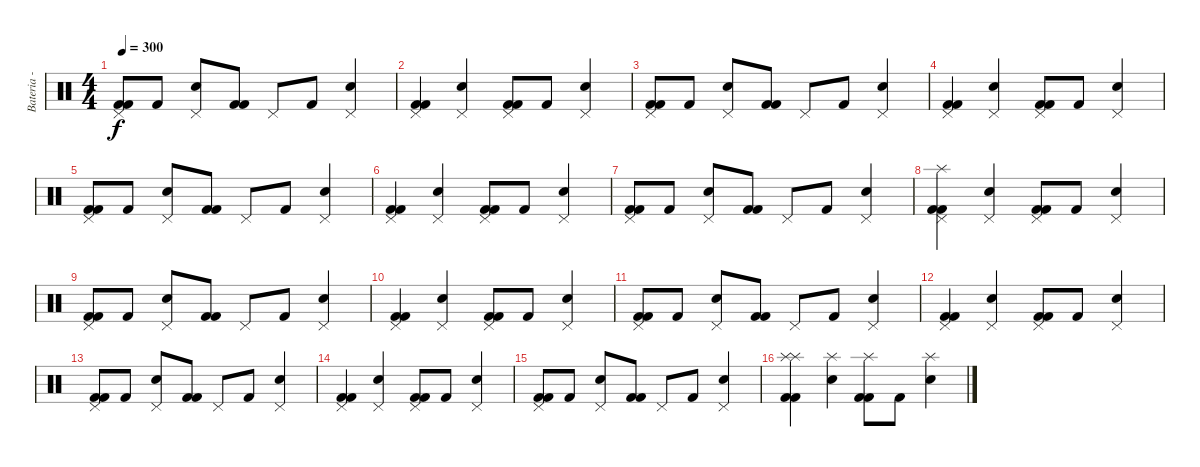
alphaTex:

\track ("Bateria - Larzon" "Bateria - ") {instrument percussion}
\staff {score}
\articulation defaults
\ts (4 4)
\tempo 300
\clef neutral
\ks c
("Pedal Hi-Hat (hit)" "Kick (hit) 2" "Kick (hit) 2").8{dy f} "Kick (hit) 2".8 ("Pedal Hi-Hat (hit)" "Snare (hit) 2").8 ("Kick (hit) 2" "Kick (hit) 2").8 "Pedal Hi-Hat (hit)".8 "Kick (hit) 2".8 ("Snare (hit) 2" "Pedal Hi-Hat (hit)").4 |
("Pedal Hi-Hat (hit)" "Kick (hit) 2" "Kick (hit) 2").4 ("Snare (hit) 2" "Pedal Hi-Hat (hit)").4 ("Kick (hit) 2" "Kick (hit) 2" "Pedal Hi-Hat (hit)").8 "Kick (hit) 2".8 ("Pedal Hi-Hat (hit)" "Snare (hit) 2").4 |
("Pedal Hi-Hat (hit)" "Kick (hit) 2" "Kick (hit) 2").8 "Kick (hit) 2".8 ("Pedal Hi-Hat (hit)" "Snare (hit) 2").8 ("Kick (hit) 2" "Kick (hit) 2").8 "Pedal Hi-Hat (hit)".8 "Kick (hit) 2".8 ("Snare (hit) 2" "Pedal Hi-Hat (hit)").4 |
("Pedal Hi-Hat (hit)" "Kick (hit) 2" "Kick (hit) 2").4 ("Snare (hit) 2" "Pedal Hi-Hat (hit)").4 ("Kick (hit) 2" "Kick (hit) 2" "Pedal Hi-Hat (hit)").8 "Kick (hit) 2".8 ("Pedal Hi-Hat (hit)" "Snare (hit) 2").4 |
("Pedal Hi-Hat (hit)" "Kick (hit) 2" "Kick (hit) 2").8 "Kick (hit) 2".8 ("Pedal Hi-Hat (hit)" "Snare (hit) 2").8 ("Kick (hit) 2" "Kick (hit) 2").8 "Pedal Hi-Hat (hit)".8 "Kick (hit) 2".8 ("Snare (hit) 2" "Pedal Hi-Hat (hit)").4 |
("Pedal Hi-Hat (hit)" "Kick (hit) 2" "Kick (hit) 2").4 ("Snare (hit) 2" "Pedal Hi-Hat (hit)").4 ("Kick (hit) 2" "Kick (hit) 2" "Pedal Hi-Hat (hit)").8 "Kick (hit) 2".8 ("Pedal Hi-Hat (hit)" "Snare (hit) 2").4 |
("Pedal Hi-Hat (hit)" "Kick (hit) 2" "Kick (hit) 2").8 "Kick (hit) 2".8 ("Pedal Hi-Hat (hit)" "Snare (hit) 2").8 ("Kick (hit) 2" "Kick (hit) 2").8 "Pedal Hi-Hat (hit)".8 "Kick (hit) 2".8 ("Snare (hit) 2" "Pedal Hi-Hat (hit)").4 |
("Splash (hit)" "Pedal Hi-Hat (hit)" "Kick (hit) 2" "Kick (hit) 2").4 ("Snare (hit) 2" "Pedal Hi-Hat (hit)").4 ("Kick (hit) 2" "Kick (hit) 2" "Pedal Hi-Hat (hit)").8 "Kick (hit) 2".8 ("Pedal Hi-Hat (hit)" "Snare (hit) 2").4 |
("Pedal Hi-Hat (hit)" "Kick (hit) 2" "Kick (hit) 2").8 "Kick (hit) 2".8 ("Pedal Hi-Hat (hit)" "Snare (hit) 2").8 ("Kick (hit) 2" "Kick (hit) 2").8 "Pedal Hi-Hat (hit)".8 "Kick (hit) 2".8 ("Snare (hit) 2" "Pedal Hi-Hat (hit)").4 |
("Pedal Hi-Hat (hit)" "Kick (hit) 2" "Kick (hit) 2").4 ("Snare (hit) 2" "Pedal Hi-Hat (hit)").4 ("Kick (hit) 2" "Kick (hit) 2" "Pedal Hi-Hat (hit)").8 "Kick (hit) 2".8 ("Pedal Hi-Hat (hit)" "Snare (hit) 2").4 |
("Pedal Hi-Hat (hit)" "Kick (hit) 2" "Kick (hit) 2").8 "Kick (hit) 2".8 ("Pedal Hi-Hat (hit)" "Snare (hit) 2").8 ("Kick (hit) 2" "Kick (hit) 2").8 "Pedal Hi-Hat (hit)".8 "Kick (hit) 2".8 ("Snare (hit) 2" "Pedal Hi-Hat (hit)").4 |
("Pedal Hi-Hat (hit)" "Kick (hit) 2" "Kick (hit) 2").4 ("Snare (hit) 2" "Pedal Hi-Hat (hit)").4 ("Kick (hit) 2" "Kick (hit) 2" "Pedal Hi-Hat (hit)").8 "Kick (hit) 2".8 ("Pedal Hi-Hat (hit)" "Snare (hit) 2").4 |
("Pedal Hi-Hat (hit)" "Kick (hit) 2" "Kick (hit) 2").8 "Kick (hit) 2".8 ("Pedal Hi-Hat (hit)" "Snare (hit) 2").8 ("Kick (hit) 2" "Kick (hit) 2").8 "Pedal Hi-Hat (hit)".8 "Kick (hit) 2".8 ("Snare (hit) 2" "Pedal Hi-Hat (hit)").4 |
("Pedal Hi-Hat (hit)" "Kick (hit) 2" "Kick (hit) 2").4 ("Snare (hit) 2" "Pedal Hi-Hat (hit)").4 ("Kick (hit) 2" "Kick (hit) 2" "Pedal Hi-Hat (hit)").8 "Kick (hit) 2".8 ("Pedal Hi-Hat (hit)" "Snare (hit) 2").4 |
("Pedal Hi-Hat (hit)" "Kick (hit) 2" "Kick (hit) 2").8 "Kick (hit) 2".8 ("Pedal Hi-Hat (hit)" "Snare (hit) 2").8 ("Kick (hit) 2" "Kick (hit) 2").8 "Pedal Hi-Hat (hit)".8 "Kick (hit) 2".8 ("Snare (hit) 2" "Pedal Hi-Hat (hit)").4 |
("Splash (hit)" "Kick (hit) 2" "Kick (hit) 2" "Splash (hit)").4 ("Snare (hit) 2" "Splash (hit)").4 ("Kick (hit) 2" "Kick (hit) 2" "Splash (hit)").8 "Kick (hit) 2".8 ("Snare (hit) 2" "Splash (hit)").4
